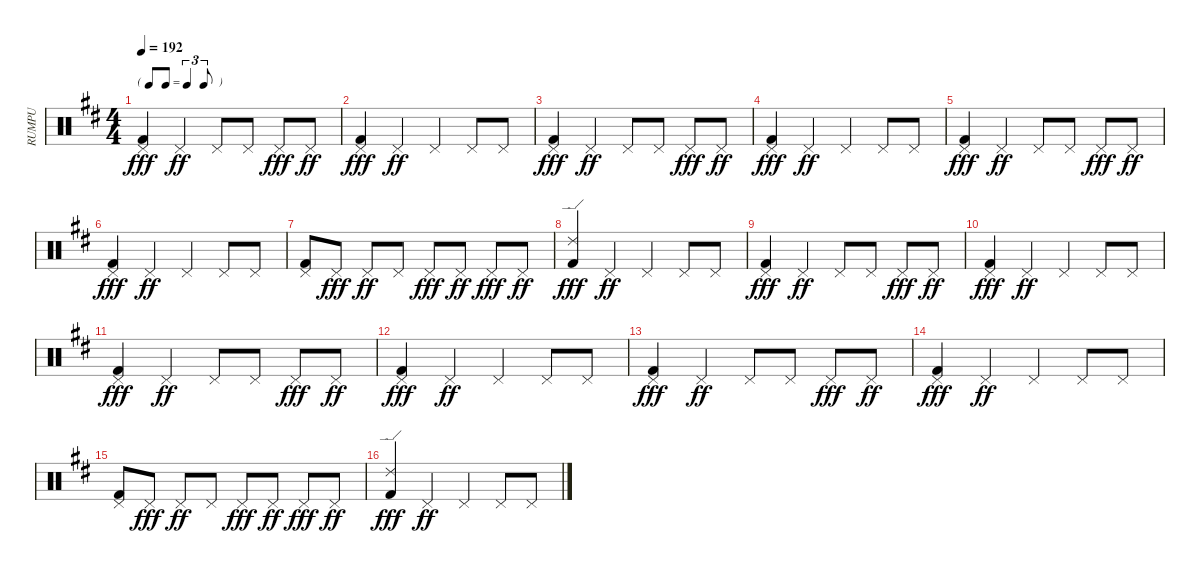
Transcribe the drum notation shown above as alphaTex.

\track ("RUMPU" "RUMPU") {instrument percussion}
\staff {score}
\articulation defaults
\ts (4 4)
\tf triplet8th
\tempo 192
\clef neutral
\ks d
("Pedal Hi-Hat (hit)" "Kick (hit) 2").4{dy fff} "Pedal Hi-Hat (hit)".4{dy ff} "Pedal Hi-Hat (hit)".8 "Pedal Hi-Hat (hit)".8 "Pedal Hi-Hat (hit)".8{dy fff} "Pedal Hi-Hat (hit)".8{dy ff} |
("Pedal Hi-Hat (hit)" "Kick (hit) 2").4{dy fff} "Pedal Hi-Hat (hit)".4{dy ff} "Pedal Hi-Hat (hit)".4 "Pedal Hi-Hat (hit)".8 "Pedal Hi-Hat (hit)".8 |
("Pedal Hi-Hat (hit)" "Kick (hit) 2").4{dy fff} "Pedal Hi-Hat (hit)".4{dy ff} "Pedal Hi-Hat (hit)".8 "Pedal Hi-Hat (hit)".8 "Pedal Hi-Hat (hit)".8{dy fff} "Pedal Hi-Hat (hit)".8{dy ff} |
("Pedal Hi-Hat (hit)" "Kick (hit) 2").4{dy fff} "Pedal Hi-Hat (hit)".4{dy ff} "Pedal Hi-Hat (hit)".4 "Pedal Hi-Hat (hit)".8 "Pedal Hi-Hat (hit)".8 |
("Pedal Hi-Hat (hit)" "Kick (hit) 2").4{dy fff} "Pedal Hi-Hat (hit)".4{dy ff} "Pedal Hi-Hat (hit)".8 "Pedal Hi-Hat (hit)".8 "Pedal Hi-Hat (hit)".8{dy fff} "Pedal Hi-Hat (hit)".8{dy ff} |
("Pedal Hi-Hat (hit)" "Kick (hit) 2").4{dy fff} "Pedal Hi-Hat (hit)".4{dy ff} "Pedal Hi-Hat (hit)".4 "Pedal Hi-Hat (hit)".8 "Pedal Hi-Hat (hit)".8 |
("Pedal Hi-Hat (hit)" "Kick (hit) 2").8 "Pedal Hi-Hat (hit)".8{dy fff} "Pedal Hi-Hat (hit)".8{dy ff} "Pedal Hi-Hat (hit)".8 "Pedal Hi-Hat (hit)".8{dy fff} "Pedal Hi-Hat (hit)".8{dy ff} "Pedal Hi-Hat (hit)".8{dy fff} "Pedal Hi-Hat (hit)".8{dy ff} |
("Ride (edge) 2" "Kick (hit) 2").4{dy fff} "Pedal Hi-Hat (hit)".4{dy ff} "Pedal Hi-Hat (hit)".4 "Pedal Hi-Hat (hit)".8 "Pedal Hi-Hat (hit)".8 |
("Pedal Hi-Hat (hit)" "Kick (hit) 2").4{dy fff} "Pedal Hi-Hat (hit)".4{dy ff} "Pedal Hi-Hat (hit)".8 "Pedal Hi-Hat (hit)".8 "Pedal Hi-Hat (hit)".8{dy fff} "Pedal Hi-Hat (hit)".8{dy ff} |
("Pedal Hi-Hat (hit)" "Kick (hit) 2").4{dy fff} "Pedal Hi-Hat (hit)".4{dy ff} "Pedal Hi-Hat (hit)".4 "Pedal Hi-Hat (hit)".8 "Pedal Hi-Hat (hit)".8 |
("Pedal Hi-Hat (hit)" "Kick (hit) 2").4{dy fff} "Pedal Hi-Hat (hit)".4{dy ff} "Pedal Hi-Hat (hit)".8 "Pedal Hi-Hat (hit)".8 "Pedal Hi-Hat (hit)".8{dy fff} "Pedal Hi-Hat (hit)".8{dy ff} |
("Pedal Hi-Hat (hit)" "Kick (hit) 2").4{dy fff} "Pedal Hi-Hat (hit)".4{dy ff} "Pedal Hi-Hat (hit)".4 "Pedal Hi-Hat (hit)".8 "Pedal Hi-Hat (hit)".8 |
("Pedal Hi-Hat (hit)" "Kick (hit) 2").4{dy fff} "Pedal Hi-Hat (hit)".4{dy ff} "Pedal Hi-Hat (hit)".8 "Pedal Hi-Hat (hit)".8 "Pedal Hi-Hat (hit)".8{dy fff} "Pedal Hi-Hat (hit)".8{dy ff} |
("Pedal Hi-Hat (hit)" "Kick (hit) 2").4{dy fff} "Pedal Hi-Hat (hit)".4{dy ff} "Pedal Hi-Hat (hit)".4 "Pedal Hi-Hat (hit)".8 "Pedal Hi-Hat (hit)".8 |
("Pedal Hi-Hat (hit)" "Kick (hit) 2").8 "Pedal Hi-Hat (hit)".8{dy fff} "Pedal Hi-Hat (hit)".8{dy ff} "Pedal Hi-Hat (hit)".8 "Pedal Hi-Hat (hit)".8{dy fff} "Pedal Hi-Hat (hit)".8{dy ff} "Pedal Hi-Hat (hit)".8{dy fff} "Pedal Hi-Hat (hit)".8{dy ff} |
("Ride (edge) 2" "Kick (hit) 2").4{dy fff} "Pedal Hi-Hat (hit)".4{dy ff} "Pedal Hi-Hat (hit)".4 "Pedal Hi-Hat (hit)".8 "Pedal Hi-Hat (hit)".8
